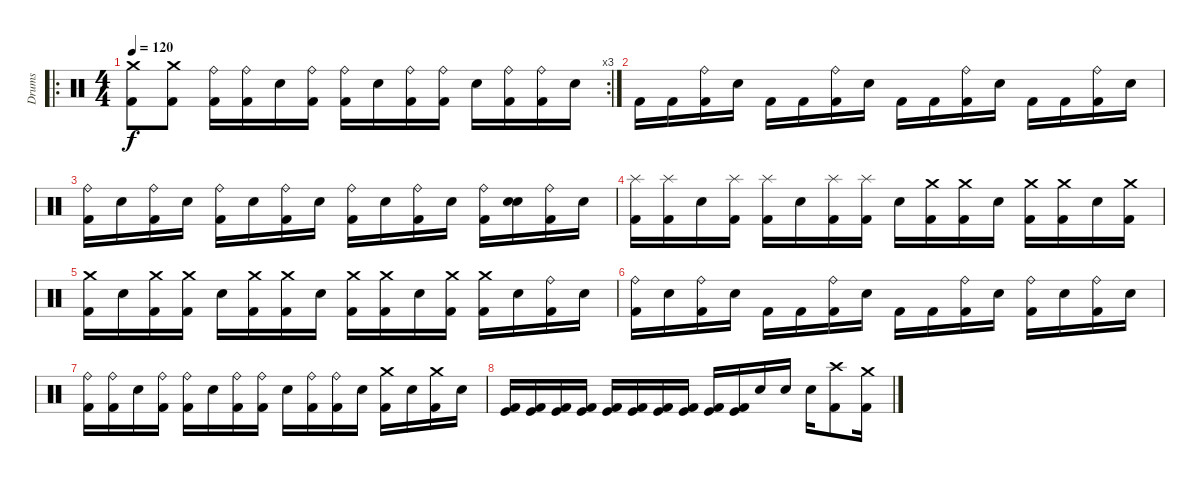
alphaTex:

\track ("Drums" "Drums") {instrument percussion}
\staff {score}
\articulation defaults
\ro
\rc 3
\ts (4 4)
\tempo 120
\clef neutral
\ks c
("Crash medium (hit)" "Kick (hit) 2").8{dy f} ("Crash medium (hit)" "Kick (hit) 2").8 ("Ride (bell)" "Kick (hit) 2").16 ("Ride (bell)" "Kick (hit) 2").16 "Electric Snare (hit)".16 ("Ride (bell)" "Kick (hit) 2").16 ("Ride (bell)" "Kick (hit) 2").16 "Electric Snare (hit)".16 ("Ride (bell)" "Kick (hit) 2").16 ("Ride (bell)" "Kick (hit) 2").16 "Electric Snare (hit)".16 ("Ride (bell)" "Kick (hit) 2").16 ("Ride (bell)" "Kick (hit) 2").16 "Electric Snare (hit)".16 |
"Kick (hit) 2".16 "Kick (hit) 2".16 ("Ride (bell)" "Kick (hit) 2").16 "Electric Snare (hit)".16 "Kick (hit) 2".16 "Kick (hit) 2".16 ("Ride (bell)" "Kick (hit) 2").16 "Electric Snare (hit)".16 "Kick (hit) 2".16 "Kick (hit) 2".16 ("Ride (bell)" "Kick (hit) 2").16 "Electric Snare (hit)".16 "Kick (hit) 2".16 "Kick (hit) 2".16 ("Ride (bell)" "Kick (hit) 2").16 "Electric Snare (hit)".16 |
("Ride (bell)" "Kick (hit) 2").16 "Electric Snare (hit)".16 ("Ride (bell)" "Kick (hit) 2").16 "Electric Snare (hit)".16 ("Ride (bell)" "Kick (hit) 2").16 "Electric Snare (hit)".16 ("Ride (bell)" "Kick (hit) 2").16 "Electric Snare (hit)".16 ("Ride (bell)" "Kick (hit) 2").16 "Electric Snare (hit)".16 ("Ride (bell)" "Kick (hit) 2").16 "Electric Snare (hit)".16 ("Ride (bell)" "Kick (hit) 2").16 ("Snare (hit)" "Electric Snare (hit)").16 ("Ride (bell)" "Kick (hit) 2").16 "Electric Snare (hit)".16 |
("Splash (hit)" "Kick (hit) 2").16 ("Splash (hit)" "Kick (hit) 2").16 "Electric Snare (hit)".16 ("Splash (hit)" "Kick (hit) 2").16 ("Splash (hit)" "Kick (hit) 2").16 "Electric Snare (hit)".16 ("Splash (hit)" "Kick (hit) 2").16 ("Splash (hit)" "Kick (hit) 2").16 "Electric Snare (hit)".16 ("Crash medium (hit)" "Kick (hit) 2").16 ("Crash medium (hit)" "Kick (hit) 2").16 "Electric Snare (hit)".16 ("Crash medium (hit)" "Kick (hit) 2").16 ("Crash medium (hit)" "Kick (hit) 2").16 "Electric Snare (hit)".16 ("Crash medium (hit)" "Kick (hit) 2").16 |
("Crash medium (hit)" "Kick (hit) 2").16 "Electric Snare (hit)".16 ("Crash medium (hit)" "Kick (hit) 2").16 ("Crash medium (hit)" "Kick (hit) 2").16 "Electric Snare (hit)".16 ("Crash medium (hit)" "Kick (hit) 2").16 ("Crash medium (hit)" "Kick (hit) 2").16 "Electric Snare (hit)".16 ("Crash medium (hit)" "Kick (hit) 2").16 ("Crash medium (hit)" "Kick (hit) 2").16 "Electric Snare (hit)".16 ("Crash medium (hit)" "Kick (hit) 2").16 ("Crash medium (hit)" "Kick (hit) 2").16 "Electric Snare (hit)".16 ("Ride (bell)" "Kick (hit) 2").16 "Electric Snare (hit)".16 |
("Ride (bell)" "Kick (hit) 2").16 "Electric Snare (hit)".16 ("Ride (bell)" "Kick (hit) 2").16 "Electric Snare (hit)".16 "Kick (hit) 2".16 "Kick (hit) 2".16 ("Ride (bell)" "Kick (hit) 2").16 "Electric Snare (hit)".16 "Kick (hit) 2".16 "Kick (hit) 2".16 ("Ride (bell)" "Kick (hit) 2").16 "Electric Snare (hit)".16 ("Ride (bell)" "Kick (hit) 2").16 "Electric Snare (hit)".16 ("Ride (bell)" "Kick (hit) 2").16 "Electric Snare (hit)".16 |
("Ride (bell)" "Kick (hit) 2").16 ("Ride (bell)" "Kick (hit) 2").16 "Electric Snare (hit)".16 ("Ride (bell)" "Kick (hit) 2").16 ("Ride (bell)" "Kick (hit) 2").16 "Electric Snare (hit)".16 ("Ride (bell)" "Kick (hit) 2").16 ("Ride (bell)" "Kick (hit) 2").16 "Electric Snare (hit)".16 ("Ride (bell)" "Kick (hit) 2").16 ("Ride (bell)" "Kick (hit) 2").16 "Electric Snare (hit)".16 ("Crash medium (hit)" "Kick (hit) 2").16 "Electric Snare (hit)".16 ("Crash medium (hit)" "Kick (hit) 2").16 "Electric Snare (hit)".16 |
("Kick (hit) 2" "Kick (hit)").16 ("Kick (hit) 2" "Kick (hit)").16 ("Kick (hit) 2" "Kick (hit)").16 ("Kick (hit) 2" "Kick (hit)").16 ("Kick (hit) 2" "Kick (hit)").16 ("Kick (hit) 2" "Kick (hit)").16 ("Kick (hit) 2" "Kick (hit)").16 ("Kick (hit) 2" "Kick (hit)").16 ("Kick (hit) 2" "Kick (hit)").16 ("Kick (hit) 2" "Kick (hit)").16 "Electric Snare (hit)".16 "Electric Snare (hit)".16 "Electric Snare (hit)".16 ("Crash high (hit)" "Kick (hit) 2").8 ("Crash medium (hit)" "Kick (hit) 2").16
